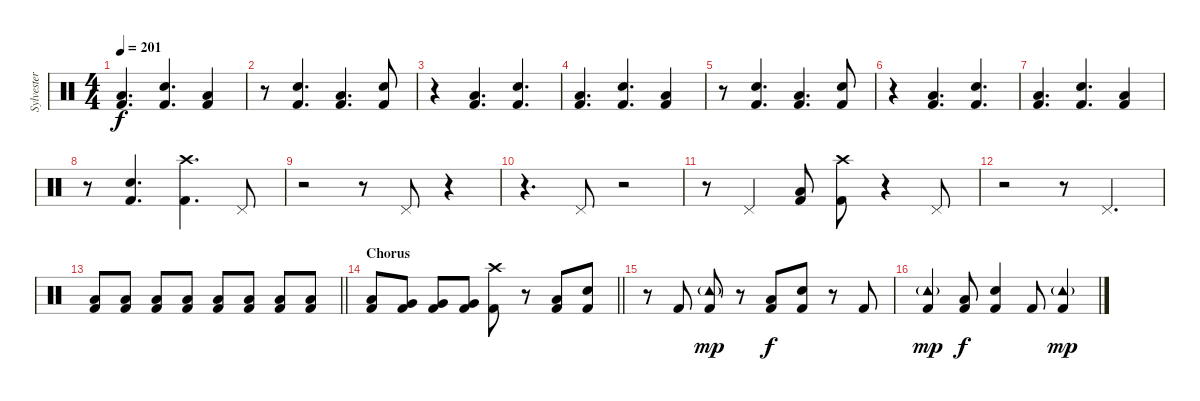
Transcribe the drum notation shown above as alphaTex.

\track ("Sylvester Schlegel" "Sylvester ") {instrument percussion}
\staff {score}
\articulation defaults
\ts (4 4)
\tempo 201
\clef neutral
\ks c
("Low Floor Tom (hit)" "Kick (hit) 2").4{d dy f} ("Snare (hit) 2" "Kick (hit) 2").4{d} ("Low Floor Tom (hit)" "Kick (hit) 2").4 |
r.8 ("Snare (hit) 2" "Kick (hit) 2").4{d} ("Low Floor Tom (hit)" "Kick (hit) 2").4{d} ("Snare (hit) 2" "Kick (hit) 2").8 |
r.4 ("Low Floor Tom (hit)" "Kick (hit) 2").4{d} ("Snare (hit) 2" "Kick (hit) 2").4{d} |
("Low Floor Tom (hit)" "Kick (hit) 2").4{d} ("Snare (hit) 2" "Kick (hit) 2").4{d} ("Low Floor Tom (hit)" "Kick (hit) 2").4 |
r.8 ("Snare (hit) 2" "Kick (hit) 2").4{d} ("Low Floor Tom (hit)" "Kick (hit) 2").4{d} ("Snare (hit) 2" "Kick (hit) 2").8 |
r.4 ("Low Floor Tom (hit)" "Kick (hit) 2").4{d} ("Snare (hit) 2" "Kick (hit) 2").4{d} |
("Low Floor Tom (hit)" "Kick (hit) 2").4{d} ("Snare (hit) 2" "Kick (hit) 2").4{d} ("Low Floor Tom (hit)" "Kick (hit) 2").4 |
r.8 ("Snare (hit) 2" "Kick (hit) 2").4{d} ("Crash high (hit)" "Kick (hit) 2").4{d} "Pedal Hi-Hat (hit)".8 |
r.2 r.8 "Pedal Hi-Hat (hit)".8 r.4 |
r.4{d} "Pedal Hi-Hat (hit)".8 r.2 |
r.8 "Pedal Hi-Hat (hit)".4 ("Low Tom (hit)" "Kick (hit) 2").8 ("Crash high (hit)" "Kick (hit) 2").8 r.4 "Pedal Hi-Hat (hit)".8 |
r.2 r.8 "Pedal Hi-Hat (hit)".4{d} |
\barLineRight lightlight
("Low Tom (hit)" "Kick (hit) 2").8 ("Low Tom (hit)" "Kick (hit) 2").8 ("Low Tom (hit)" "Kick (hit) 2").8 ("Low Tom (hit)" "Kick (hit) 2").8 ("Low Tom (hit)" "Kick (hit) 2").8 ("Low Tom (hit)" "Kick (hit) 2").8 ("Low Tom (hit)" "Kick (hit) 2").8 ("Low Tom (hit)" "Kick (hit) 2").8 |
\section ("" "Chorus")
\barLineRight lightlight
("Low Tom (hit)" "Kick (hit) 2").8 ("Very Low Tom (hit)" "Kick (hit) 2").8 ("Very Low Tom (hit)" "Kick (hit) 2").8 ("Very Low Tom (hit)" "Kick (hit) 2").8 ("Crash high (hit)" "Kick (hit) 2").8 r.8 ("Low Floor Tom (hit)" "Kick (hit) 2").8 ("Snare (hit) 2" "Kick (hit) 2").8 |
r.8 "Kick (hit) 2".8 ("Tambourine (hit)"{g} "Kick (hit) 2").8{dy mp} r.8 ("Low Floor Tom (hit)" "Kick (hit) 2").8{dy f} ("Snare (hit) 2" "Kick (hit) 2").8 r.8 "Kick (hit) 2".8 |
("Tambourine (hit)"{g} "Kick (hit) 2").4{dy mp} ("Low Floor Tom (hit)" "Kick (hit) 2").8{dy f} ("Snare (hit) 2" "Kick (hit) 2").4 "Kick (hit) 2".8 ("Tambourine (hit)"{g} "Kick (hit) 2").4{dy mp}
